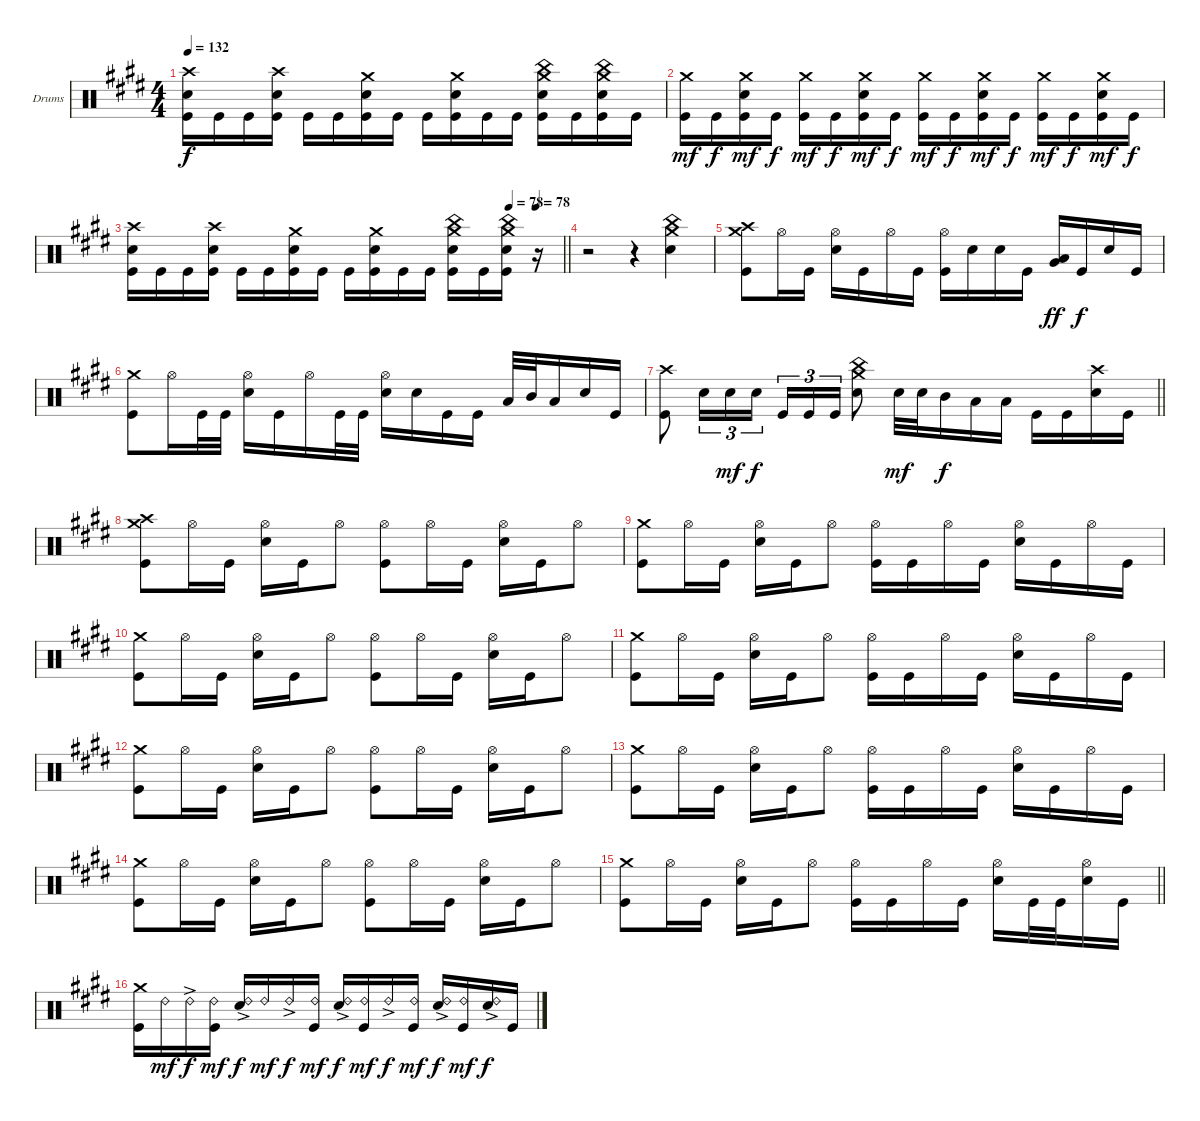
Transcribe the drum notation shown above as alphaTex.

\bracketExtendMode groupsimilarinstruments
\firstSystemTrackNameOrientation horizontal
\otherSystemsTrackNameOrientation horizontal
\track ("Drumkit" "Drums") {instrument percussion}
\staff {score}
\articulation defaults
\ts (4 4)
\tempo 132
\clef neutral
\ks c#minor
("Crash high (hit)" "Snare (hit) 2" "Kick (hit)").16{dy f} "Kick (hit)".16 "Kick (hit)".16 ("Crash high (hit)" "Snare (hit) 2" "Kick (hit)").16 "Kick (hit)".16 "Kick (hit)".16 ("Crash medium (hit)" "Snare (hit) 2" "Kick (hit)").16 "Kick (hit)".16 "Kick (hit)".16 ("Crash medium (hit)" "Snare (hit) 2" "Kick (hit)").16 "Kick (hit)".16 "Kick (hit)".16 ("China (hit)" "Crash medium (hit)" "Snare (hit) 2" "Kick (hit)").16 "Kick (hit)".16 ("China (hit)" "Crash medium (hit)" "Snare (hit) 2" "Kick (hit)").16 "Kick (hit)".16 |
("Crash medium (hit)" "Kick (hit)").16{dy mf} "Kick (hit)".16{dy f} ("Crash medium (hit)" "Snare (hit) 2" "Kick (hit)").16{dy mf} "Kick (hit)".16{dy f} ("Crash medium (hit)" "Kick (hit)").16{dy mf} "Kick (hit)".16{dy f} ("Crash medium (hit)" "Snare (hit) 2" "Kick (hit)").16{dy mf} "Kick (hit)".16{dy f} ("Crash medium (hit)" "Kick (hit)").16{dy mf} "Kick (hit)".16{dy f} ("Crash medium (hit)" "Snare (hit) 2" "Kick (hit)").16{dy mf} "Kick (hit)".16{dy f} ("Crash medium (hit)" "Kick (hit)").16{dy mf} "Kick (hit)".16{dy f} ("Crash medium (hit)" "Snare (hit) 2" "Kick (hit)").16{dy mf} "Kick (hit)".16{dy f} |
\tempo (78 0.875)
\tempo (78 0.9375)
\barLineRight lightlight
("Crash high (hit)" "Snare (hit) 2" "Kick (hit)").16 "Kick (hit)".16 "Kick (hit)".16 ("Crash high (hit)" "Snare (hit) 2" "Kick (hit)").16 "Kick (hit)".16 "Kick (hit)".16 ("Crash medium (hit)" "Snare (hit) 2" "Kick (hit)").16 "Kick (hit)".16 "Kick (hit)".16 ("Crash medium (hit)" "Snare (hit) 2" "Kick (hit)").16 "Kick (hit)".16 "Kick (hit)".16 ("China (hit)" "Crash medium (hit)" "Snare (hit) 2" "Kick (hit)").16 "Kick (hit)".16 ("China (hit)" "Crash medium (hit)" "Snare (hit) 2" "Kick (hit)").16 r.16 |
r.2 r.4 ("China (hit)" "Crash medium (hit)" "Snare (hit) 2").4 |
("Crash medium (hit)" "Crash high (hit)" "Kick (hit)").8 "Hi-Hat (open)".16 "Kick (hit)".16 ("Hi-Hat (open)" "Snare (hit) 2").16 "Kick (hit)".16 "Hi-Hat (open)".16 "Kick (hit)".16 ("Hi-Hat (open)" "Kick (hit)").16 "Snare (hit) 2".16 "Snare (hit) 2".16 "Kick (hit)".16 ("Low Tom (hit)" "Very Low Tom (hit)").16{dy ff} "Kick (hit)".16{dy f} "Snare (hit) 2".16 "Kick (hit)".16 |
("Crash medium (hit)" "Kick (hit)").8 "Hi-Hat (open)".16 "Kick (hit)".32 "Kick (hit)".32 ("Hi-Hat (open)" "Snare (hit) 2").16 "Kick (hit)".16 "Hi-Hat (open)".16 "Kick (hit)".32 "Kick (hit)".32 ("Hi-Hat (open)" "Snare (hit) 2").16 "Snare (hit) 2".16 "Kick (hit)".16 "Kick (hit)".16 "Low Tom (hit)".32 "Mid Tom (hit)".32 "Low Tom (hit)".16 "Snare (hit) 2".16 "Kick (hit)".16 |
\barLineRight lightlight
("Crash high (hit)" "Kick (hit)").8 "Snare (hit) 2".16{tu (3 2)} "Snare (hit) 2".16{tu (3 2) dy mf} "Snare (hit) 2".16{tu (3 2) dy f} "Kick (hit)".16{tu (3 2)} "Kick (hit)".16{tu (3 2)} "Kick (hit)".16{tu (3 2)} ("Crash medium (hit)" "China (hit)" "Snare (hit) 2").8 "Snare (hit) 2".32{dy mf} "Snare (hit) 2".32 "Mid Tom (hit)".16{dy f} "Low Tom (hit)".16 "Low Tom (hit)".16 "Kick (hit)".16 "Kick (hit)".16 ("Crash high (hit)" "Snare (hit) 2").16 "Kick (hit)".16 |
("Crash medium (hit)" "Crash high (hit)" "Kick (hit)").8 "Hi-Hat (open)".16 "Kick (hit)".16 ("Hi-Hat (open)" "Snare (hit) 2").16 "Kick (hit)".16 "Hi-Hat (open)".8 ("Hi-Hat (open)" "Kick (hit)").8 "Hi-Hat (open)".16 "Kick (hit)".16 ("Hi-Hat (open)" "Snare (hit) 2").16 "Kick (hit)".16 "Hi-Hat (open)".8 |
("Crash medium (hit)" "Kick (hit)").8 "Hi-Hat (open)".16 "Kick (hit)".16 ("Hi-Hat (open)" "Snare (hit) 2").16 "Kick (hit)".16 "Hi-Hat (open)".8 ("Hi-Hat (open)" "Kick (hit)").16 "Kick (hit)".16 "Hi-Hat (open)".16 "Kick (hit)".16 ("Hi-Hat (open)" "Snare (hit) 2").16 "Kick (hit)".16 "Hi-Hat (open)".16 "Kick (hit)".16 |
("Crash medium (hit)" "Kick (hit)").8 "Hi-Hat (open)".16 "Kick (hit)".16 ("Hi-Hat (open)" "Snare (hit) 2").16 "Kick (hit)".16 "Hi-Hat (open)".8 ("Hi-Hat (open)" "Kick (hit)").8 "Hi-Hat (open)".16 "Kick (hit)".16 ("Hi-Hat (open)" "Snare (hit) 2").16 "Kick (hit)".16 "Hi-Hat (open)".8 |
("Crash medium (hit)" "Kick (hit)").8 "Hi-Hat (open)".16 "Kick (hit)".16 ("Hi-Hat (open)" "Snare (hit) 2").16 "Kick (hit)".16 "Hi-Hat (open)".8 ("Hi-Hat (open)" "Kick (hit)").16 "Kick (hit)".16 "Hi-Hat (open)".16 "Kick (hit)".16 ("Hi-Hat (open)" "Snare (hit) 2").16 "Kick (hit)".16 "Hi-Hat (open)".16 "Kick (hit)".16 |
("Crash medium (hit)" "Kick (hit)").8 "Hi-Hat (open)".16 "Kick (hit)".16 ("Hi-Hat (open)" "Snare (hit) 2").16 "Kick (hit)".16 "Hi-Hat (open)".8 ("Hi-Hat (open)" "Kick (hit)").8 "Hi-Hat (open)".16 "Kick (hit)".16 ("Hi-Hat (open)" "Snare (hit) 2").16 "Kick (hit)".16 "Hi-Hat (open)".8 |
("Crash medium (hit)" "Kick (hit)").8 "Hi-Hat (open)".16 "Kick (hit)".16 ("Hi-Hat (open)" "Snare (hit) 2").16 "Kick (hit)".16 "Hi-Hat (open)".8 ("Hi-Hat (open)" "Kick (hit)").16 "Kick (hit)".16 "Hi-Hat (open)".16 "Kick (hit)".16 ("Hi-Hat (open)" "Snare (hit) 2").16 "Kick (hit)".16 "Hi-Hat (open)".16 "Kick (hit)".16 |
("Crash medium (hit)" "Kick (hit)").8 "Hi-Hat (open)".16 "Kick (hit)".16 ("Hi-Hat (open)" "Snare (hit) 2").16 "Kick (hit)".16 "Hi-Hat (open)".8 ("Hi-Hat (open)" "Kick (hit)").8 "Hi-Hat (open)".16 "Kick (hit)".16 ("Hi-Hat (open)" "Snare (hit) 2").16 "Kick (hit)".16 "Hi-Hat (open)".8 |
\barLineRight lightlight
("Crash medium (hit)" "Kick (hit)").8 "Hi-Hat (open)".16 "Kick (hit)".16 ("Hi-Hat (open)" "Snare (hit) 2").16 "Kick (hit)".16 "Hi-Hat (open)".8 ("Hi-Hat (open)" "Kick (hit)").16 "Kick (hit)".16 "Hi-Hat (open)".16 "Kick (hit)".16 ("Hi-Hat (open)" "Snare (hit) 2").16 "Kick (hit)".32 "Kick (hit)".32 ("Hi-Hat (open)" "Snare (hit) 2").16 "Kick (hit)".16 |
("Crash medium (hit)" "Kick (hit)").16 "Ride (bell) 2".16{dy mf} "Ride (bell) 2"{ac}.16{dy f} ("Ride (bell) 2" "Kick (hit)").16{dy mf} ("Ride (bell) 2"{ac} "Snare (hit) 2").16{dy f} "Ride (bell) 2".16{dy mf} "Ride (bell) 2"{ac}.16{dy f} ("Ride (bell) 2" "Kick (hit)").16{dy mf} ("Ride (bell) 2"{ac} "Snare (hit) 2").16{dy f} ("Ride (bell) 2" "Kick (hit)").16{dy mf} "Ride (bell) 2"{ac}.16{dy f} ("Ride (bell) 2" "Kick (hit)").16{dy mf} ("Ride (bell) 2"{ac} "Snare (hit) 2").16{dy f} ("Ride (bell) 2" "Kick (hit)").16{dy mf} ("Ride (bell) 2"{ac} "Snare (hit) 2").16{dy f} "Kick (hit)".16
